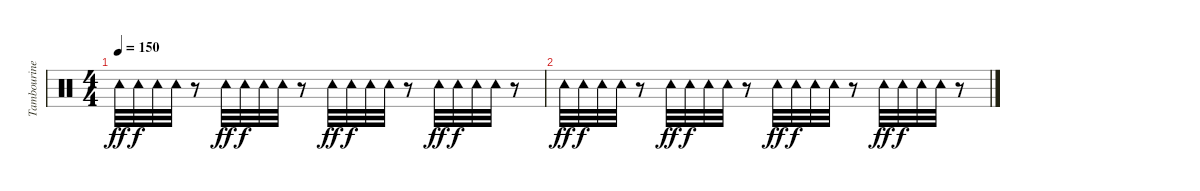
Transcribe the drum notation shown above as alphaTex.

\track ("Tambourine" "Tambourine") {instrument percussion}
\staff {score}
\articulation defaults
\ts (4 4)
\tempo 150
\clef neutral
\ks c "Tambourine (hit)".32{dy ff} "Tambourine (hit)".32{dy f} "Tambourine (hit)".32 "Tambourine (hit)".32
r.8 "Tambourine (hit)".32{dy ff} "Tambourine (hit)".32{dy f} "Tambourine (hit)".32 "Tambourine (hit)".32 r.8 "Tambourine (hit)".32{dy ff} "Tambourine (hit)".32{dy f} "Tambourine (hit)".32 "Tambourine (hit)".32 r.8 "Tambourine (hit)".32{dy ff} "Tambourine (hit)".32{dy f} "Tambourine (hit)".32 "Tambourine (hit)".32 r.8 |
"Tambourine (hit)".32{dy ff} "Tambourine (hit)".32{dy f} "Tambourine (hit)".32 "Tambourine (hit)".32 r.8 "Tambourine (hit)".32{dy ff} "Tambourine (hit)".32{dy f} "Tambourine (hit)".32 "Tambourine (hit)".32 r.8 "Tambourine (hit)".32{dy ff} "Tambourine (hit)".32{dy f} "Tambourine (hit)".32 "Tambourine (hit)".32 r.8 "Tambourine (hit)".32{dy ff} "Tambourine (hit)".32{dy f} "Tambourine (hit)".32 "Tambourine (hit)".32 r.8
